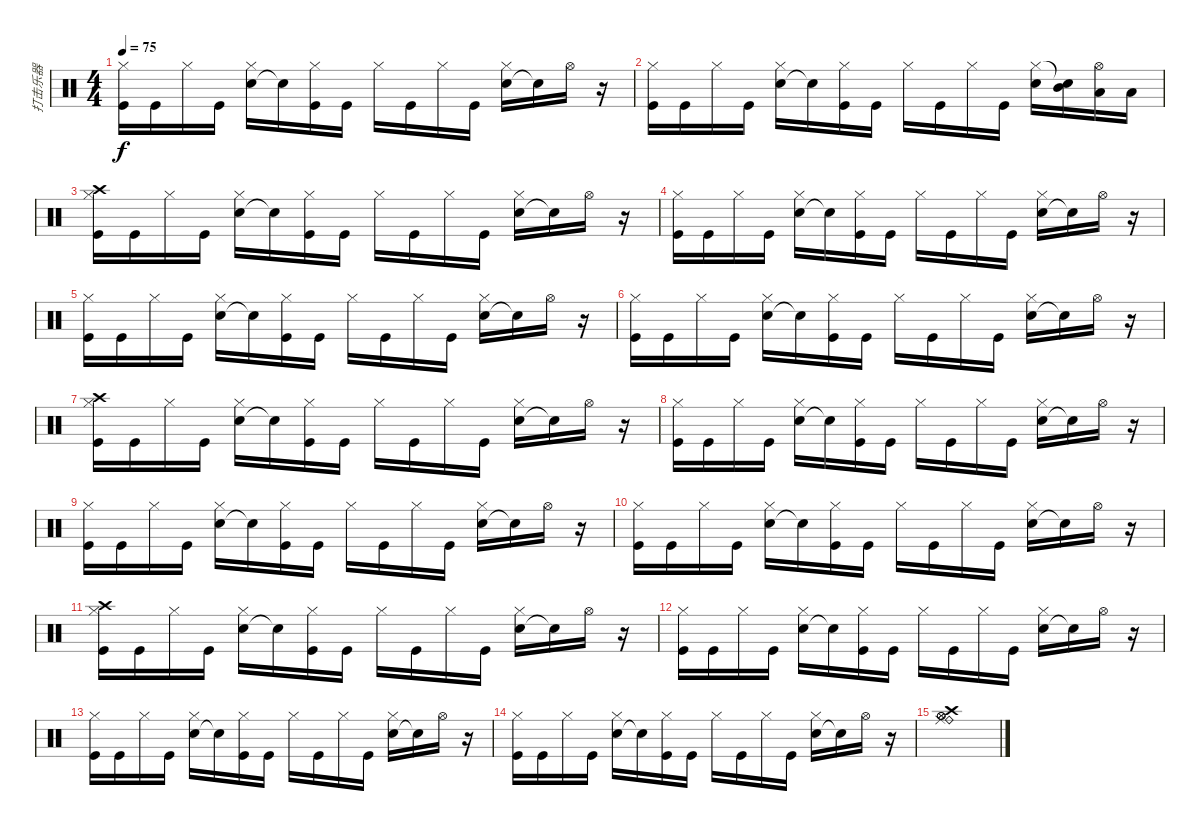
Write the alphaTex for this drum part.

\track ("打击乐器" "打击乐器") {instrument percussion}
\staff {score}
\articulation defaults
\ts (4 4)
\tempo 75
\clef neutral
\ks c
("Kick (hit)" "Hi-Hat (closed)").16{dy f} "Kick (hit)".16 "Hi-Hat (closed)".16 "Kick (hit)".16 ("Electric Snare (hit)" "Hi-Hat (closed)").16 "Electric Snare (hit)"{t}.16 ("Kick (hit)" "Hi-Hat (closed)").16 "Kick (hit)".16 "Hi-Hat (closed)".16 "Kick (hit)".16 "Hi-Hat (closed)".16 "Kick (hit)".16 ("Electric Snare (hit)" "Hi-Hat (closed)").16 "Electric Snare (hit)"{t}.16 "Hi-Hat (open)".16 r.16 |
("Kick (hit)" "Hi-Hat (closed)").16 "Kick (hit)".16 "Hi-Hat (closed)".16 "Kick (hit)".16 ("Electric Snare (hit)" "Hi-Hat (closed)").16 "Electric Snare (hit)"{t}.16 ("Kick (hit)" "Hi-Hat (closed)").16 "Kick (hit)".16 "Hi-Hat (closed)".16 "Kick (hit)".16 "Hi-Hat (closed)".16 "Kick (hit)".16 ("Electric Snare (hit)" "Hi-Hat (closed)").16 ("Mid Tom (hit)" "Electric Snare (hit)"{t}).16 ("Low Tom (hit)" "Hi-Hat (open)").16 "Low Floor Tom (hit)".16 |
("Crash high (hit)" "Kick (hit)" "Hi-Hat (closed)").16 "Kick (hit)".16 "Hi-Hat (closed)".16 "Kick (hit)".16 ("Electric Snare (hit)" "Hi-Hat (closed)").16 "Electric Snare (hit)"{t}.16 ("Kick (hit)" "Hi-Hat (closed)").16 "Kick (hit)".16 "Hi-Hat (closed)".16 "Kick (hit)".16 "Hi-Hat (closed)".16 "Kick (hit)".16 ("Electric Snare (hit)" "Hi-Hat (closed)").16 "Electric Snare (hit)"{t}.16 "Hi-Hat (open)".16 r.16 |
("Kick (hit)" "Hi-Hat (closed)").16 "Kick (hit)".16 "Hi-Hat (closed)".16 "Kick (hit)".16 ("Electric Snare (hit)" "Hi-Hat (closed)").16 "Electric Snare (hit)"{t}.16 ("Kick (hit)" "Hi-Hat (closed)").16 "Kick (hit)".16 "Hi-Hat (closed)".16 "Kick (hit)".16 "Hi-Hat (closed)".16 "Kick (hit)".16 ("Electric Snare (hit)" "Hi-Hat (closed)").16 "Electric Snare (hit)"{t}.16 "Hi-Hat (open)".16 r.16 |
("Kick (hit)" "Hi-Hat (closed)").16 "Kick (hit)".16 "Hi-Hat (closed)".16 "Kick (hit)".16 ("Electric Snare (hit)" "Hi-Hat (closed)").16 "Electric Snare (hit)"{t}.16 ("Kick (hit)" "Hi-Hat (closed)").16 "Kick (hit)".16 "Hi-Hat (closed)".16 "Kick (hit)".16 "Hi-Hat (closed)".16 "Kick (hit)".16 ("Electric Snare (hit)" "Hi-Hat (closed)").16 "Electric Snare (hit)"{t}.16 "Hi-Hat (open)".16 r.16 |
("Kick (hit)" "Hi-Hat (closed)").16 "Kick (hit)".16 "Hi-Hat (closed)".16 "Kick (hit)".16 ("Electric Snare (hit)" "Hi-Hat (closed)").16 "Electric Snare (hit)"{t}.16 ("Kick (hit)" "Hi-Hat (closed)").16 "Kick (hit)".16 "Hi-Hat (closed)".16 "Kick (hit)".16 "Hi-Hat (closed)".16 "Kick (hit)".16 ("Electric Snare (hit)" "Hi-Hat (closed)").16 "Electric Snare (hit)"{t}.16 "Hi-Hat (open)".16 r.16 |
("Crash high (hit)" "Kick (hit)" "Hi-Hat (closed)").16 "Kick (hit)".16 "Hi-Hat (closed)".16 "Kick (hit)".16 ("Electric Snare (hit)" "Hi-Hat (closed)").16 "Electric Snare (hit)"{t}.16 ("Kick (hit)" "Hi-Hat (closed)").16 "Kick (hit)".16 "Hi-Hat (closed)".16 "Kick (hit)".16 "Hi-Hat (closed)".16 "Kick (hit)".16 ("Electric Snare (hit)" "Hi-Hat (closed)").16 "Electric Snare (hit)"{t}.16 "Hi-Hat (open)".16 r.16 |
("Kick (hit)" "Hi-Hat (closed)").16 "Kick (hit)".16 "Hi-Hat (closed)".16 "Kick (hit)".16 ("Electric Snare (hit)" "Hi-Hat (closed)").16 "Electric Snare (hit)"{t}.16 ("Kick (hit)" "Hi-Hat (closed)").16 "Kick (hit)".16 "Hi-Hat (closed)".16 "Kick (hit)".16 "Hi-Hat (closed)".16 "Kick (hit)".16 ("Electric Snare (hit)" "Hi-Hat (closed)").16 "Electric Snare (hit)"{t}.16 "Hi-Hat (open)".16 r.16 |
("Kick (hit)" "Hi-Hat (closed)").16 "Kick (hit)".16 "Hi-Hat (closed)".16 "Kick (hit)".16 ("Electric Snare (hit)" "Hi-Hat (closed)").16 "Electric Snare (hit)"{t}.16 ("Kick (hit)" "Hi-Hat (closed)").16 "Kick (hit)".16 "Hi-Hat (closed)".16 "Kick (hit)".16 "Hi-Hat (closed)".16 "Kick (hit)".16 ("Electric Snare (hit)" "Hi-Hat (closed)").16 "Electric Snare (hit)"{t}.16 "Hi-Hat (open)".16 r.16 |
("Kick (hit)" "Hi-Hat (closed)").16 "Kick (hit)".16 "Hi-Hat (closed)".16 "Kick (hit)".16 ("Electric Snare (hit)" "Hi-Hat (closed)").16 "Electric Snare (hit)"{t}.16 ("Kick (hit)" "Hi-Hat (closed)").16 "Kick (hit)".16 "Hi-Hat (closed)".16 "Kick (hit)".16 "Hi-Hat (closed)".16 "Kick (hit)".16 ("Electric Snare (hit)" "Hi-Hat (closed)").16 "Electric Snare (hit)"{t}.16 "Hi-Hat (open)".16 r.16 |
("Crash high (hit)" "Kick (hit)" "Hi-Hat (closed)").16 "Kick (hit)".16 "Hi-Hat (closed)".16 "Kick (hit)".16 ("Electric Snare (hit)" "Hi-Hat (closed)").16 "Electric Snare (hit)"{t}.16 ("Kick (hit)" "Hi-Hat (closed)").16 "Kick (hit)".16 "Hi-Hat (closed)".16 "Kick (hit)".16 "Hi-Hat (closed)".16 "Kick (hit)".16 ("Electric Snare (hit)" "Hi-Hat (closed)").16 "Electric Snare (hit)"{t}.16 "Hi-Hat (open)".16 r.16 |
("Kick (hit)" "Hi-Hat (closed)").16 "Kick (hit)".16 "Hi-Hat (closed)".16 "Kick (hit)".16 ("Electric Snare (hit)" "Hi-Hat (closed)").16 "Electric Snare (hit)"{t}.16 ("Kick (hit)" "Hi-Hat (closed)").16 "Kick (hit)".16 "Hi-Hat (closed)".16 "Kick (hit)".16 "Hi-Hat (closed)".16 "Kick (hit)".16 ("Electric Snare (hit)" "Hi-Hat (closed)").16 "Electric Snare (hit)"{t}.16 "Hi-Hat (open)".16 r.16 |
("Kick (hit)" "Hi-Hat (closed)").16 "Kick (hit)".16 "Hi-Hat (closed)".16 "Kick (hit)".16 ("Electric Snare (hit)" "Hi-Hat (closed)").16 "Electric Snare (hit)"{t}.16 ("Kick (hit)" "Hi-Hat (closed)").16 "Kick (hit)".16 "Hi-Hat (closed)".16 "Kick (hit)".16 "Hi-Hat (closed)".16 "Kick (hit)".16 ("Electric Snare (hit)" "Hi-Hat (closed)").16 "Electric Snare (hit)"{t}.16 "Hi-Hat (open)".16 r.16 |
("Kick (hit)" "Hi-Hat (closed)").16 "Kick (hit)".16 "Hi-Hat (closed)".16 "Kick (hit)".16 ("Electric Snare (hit)" "Hi-Hat (closed)").16 "Electric Snare (hit)"{t}.16 ("Kick (hit)" "Hi-Hat (closed)").16 "Kick (hit)".16 "Hi-Hat (closed)".16 "Kick (hit)".16 "Hi-Hat (closed)".16 "Kick (hit)".16 ("Electric Snare (hit)" "Hi-Hat (closed)").16 "Electric Snare (hit)"{t}.16 "Hi-Hat (open)".16 r.16 |
("Crash high (hit)" "Ride (bell)" "Ride (middle)" "Hi-Hat (open)" "Hi-Hat (open)").1
